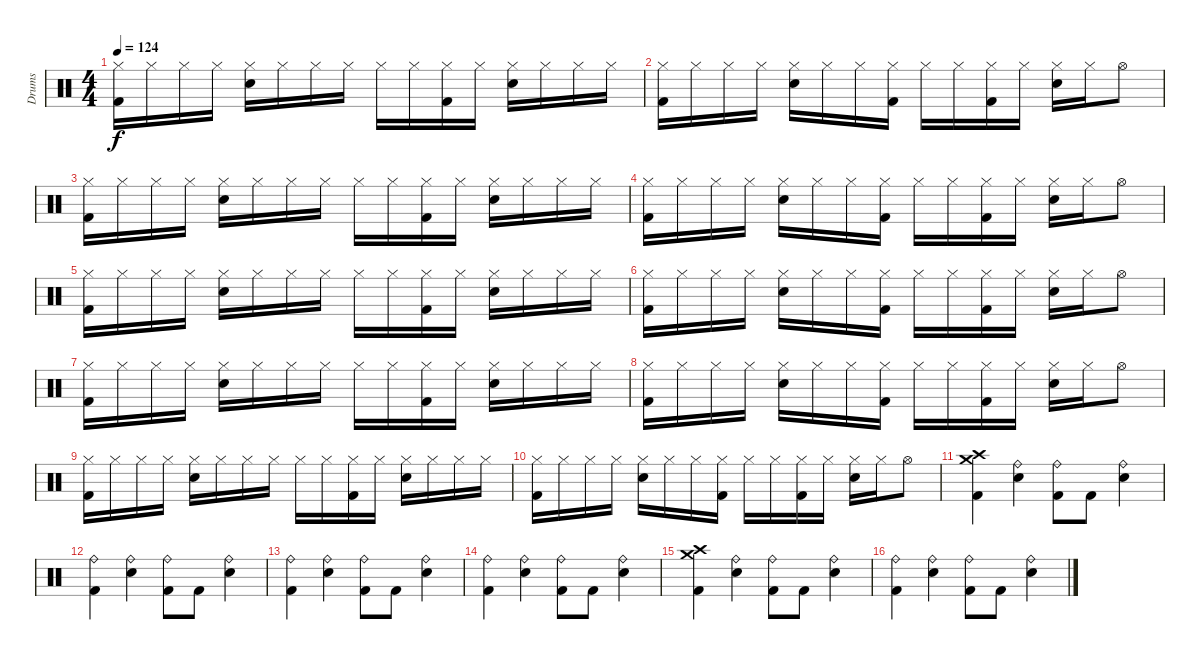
\track ("Drums" "Drums") {instrument percussion}
\staff {score}
\articulation defaults
\ts (4 4)
\tempo 124
\clef neutral
\ks c
("Hi-Hat (closed)" "Kick (hit) 2").16{dy f} "Hi-Hat (closed)".16 "Hi-Hat (closed)".16 "Hi-Hat (closed)".16 ("Hi-Hat (closed)" "Electric Snare (hit)").16 "Hi-Hat (closed)".16 "Hi-Hat (closed)".16 "Hi-Hat (closed)".16 "Hi-Hat (closed)".16 "Hi-Hat (closed)".16 ("Hi-Hat (closed)" "Kick (hit) 2").16 "Hi-Hat (closed)".16 ("Hi-Hat (closed)" "Electric Snare (hit)").16 "Hi-Hat (closed)".16 "Hi-Hat (closed)".16 "Hi-Hat (closed)".16 |
("Hi-Hat (closed)" "Kick (hit) 2").16 "Hi-Hat (closed)".16 "Hi-Hat (closed)".16 "Hi-Hat (closed)".16 ("Hi-Hat (closed)" "Electric Snare (hit)").16 "Hi-Hat (closed)".16 "Hi-Hat (closed)".16 ("Hi-Hat (closed)" "Kick (hit) 2").16 "Hi-Hat (closed)".16 "Hi-Hat (closed)".16 ("Hi-Hat (closed)" "Kick (hit) 2").16 "Hi-Hat (closed)".16 ("Hi-Hat (closed)" "Electric Snare (hit)").16 "Hi-Hat (closed)".16 "Hi-Hat (open)".8 |
("Hi-Hat (closed)" "Kick (hit) 2").16 "Hi-Hat (closed)".16 "Hi-Hat (closed)".16 "Hi-Hat (closed)".16 ("Hi-Hat (closed)" "Electric Snare (hit)").16 "Hi-Hat (closed)".16 "Hi-Hat (closed)".16 "Hi-Hat (closed)".16 "Hi-Hat (closed)".16 "Hi-Hat (closed)".16 ("Hi-Hat (closed)" "Kick (hit) 2").16 "Hi-Hat (closed)".16 ("Hi-Hat (closed)" "Electric Snare (hit)").16 "Hi-Hat (closed)".16 "Hi-Hat (closed)".16 "Hi-Hat (closed)".16 |
("Hi-Hat (closed)" "Kick (hit) 2").16 "Hi-Hat (closed)".16 "Hi-Hat (closed)".16 "Hi-Hat (closed)".16 ("Hi-Hat (closed)" "Electric Snare (hit)").16 "Hi-Hat (closed)".16 "Hi-Hat (closed)".16 ("Hi-Hat (closed)" "Kick (hit) 2").16 "Hi-Hat (closed)".16 "Hi-Hat (closed)".16 ("Hi-Hat (closed)" "Kick (hit) 2").16 "Hi-Hat (closed)".16 ("Hi-Hat (closed)" "Electric Snare (hit)").16 "Hi-Hat (closed)".16 "Hi-Hat (open)".8 |
("Hi-Hat (closed)" "Kick (hit) 2").16 "Hi-Hat (closed)".16 "Hi-Hat (closed)".16 "Hi-Hat (closed)".16 ("Hi-Hat (closed)" "Electric Snare (hit)").16 "Hi-Hat (closed)".16 "Hi-Hat (closed)".16 "Hi-Hat (closed)".16 "Hi-Hat (closed)".16 "Hi-Hat (closed)".16 ("Hi-Hat (closed)" "Kick (hit) 2").16 "Hi-Hat (closed)".16 ("Hi-Hat (closed)" "Electric Snare (hit)").16 "Hi-Hat (closed)".16 "Hi-Hat (closed)".16 "Hi-Hat (closed)".16 |
("Hi-Hat (closed)" "Kick (hit) 2").16 "Hi-Hat (closed)".16 "Hi-Hat (closed)".16 "Hi-Hat (closed)".16 ("Hi-Hat (closed)" "Electric Snare (hit)").16 "Hi-Hat (closed)".16 "Hi-Hat (closed)".16 ("Hi-Hat (closed)" "Kick (hit) 2").16 "Hi-Hat (closed)".16 "Hi-Hat (closed)".16 ("Hi-Hat (closed)" "Kick (hit) 2").16 "Hi-Hat (closed)".16 ("Hi-Hat (closed)" "Electric Snare (hit)").16 "Hi-Hat (closed)".16 "Hi-Hat (open)".8 |
("Hi-Hat (closed)" "Kick (hit) 2").16 "Hi-Hat (closed)".16 "Hi-Hat (closed)".16 "Hi-Hat (closed)".16 ("Hi-Hat (closed)" "Electric Snare (hit)").16 "Hi-Hat (closed)".16 "Hi-Hat (closed)".16 "Hi-Hat (closed)".16 "Hi-Hat (closed)".16 "Hi-Hat (closed)".16 ("Hi-Hat (closed)" "Kick (hit) 2").16 "Hi-Hat (closed)".16 ("Hi-Hat (closed)" "Electric Snare (hit)").16 "Hi-Hat (closed)".16 "Hi-Hat (closed)".16 "Hi-Hat (closed)".16 |
("Hi-Hat (closed)" "Kick (hit) 2").16 "Hi-Hat (closed)".16 "Hi-Hat (closed)".16 "Hi-Hat (closed)".16 ("Hi-Hat (closed)" "Electric Snare (hit)").16 "Hi-Hat (closed)".16 "Hi-Hat (closed)".16 ("Hi-Hat (closed)" "Kick (hit) 2").16 "Hi-Hat (closed)".16 "Hi-Hat (closed)".16 ("Hi-Hat (closed)" "Kick (hit) 2").16 "Hi-Hat (closed)".16 ("Hi-Hat (closed)" "Electric Snare (hit)").16 "Hi-Hat (closed)".16 "Hi-Hat (open)".8 |
("Hi-Hat (closed)" "Kick (hit) 2").16 "Hi-Hat (closed)".16 "Hi-Hat (closed)".16 "Hi-Hat (closed)".16 ("Hi-Hat (closed)" "Electric Snare (hit)").16 "Hi-Hat (closed)".16 "Hi-Hat (closed)".16 "Hi-Hat (closed)".16 "Hi-Hat (closed)".16 "Hi-Hat (closed)".16 ("Hi-Hat (closed)" "Kick (hit) 2").16 "Hi-Hat (closed)".16 ("Hi-Hat (closed)" "Electric Snare (hit)").16 "Hi-Hat (closed)".16 "Hi-Hat (closed)".16 "Hi-Hat (closed)".16 |
("Hi-Hat (closed)" "Kick (hit) 2").16 "Hi-Hat (closed)".16 "Hi-Hat (closed)".16 "Hi-Hat (closed)".16 ("Hi-Hat (closed)" "Electric Snare (hit)").16 "Hi-Hat (closed)".16 "Hi-Hat (closed)".16 ("Hi-Hat (closed)" "Kick (hit) 2").16 "Hi-Hat (closed)".16 "Hi-Hat (closed)".16 ("Hi-Hat (closed)" "Kick (hit) 2").16 "Hi-Hat (closed)".16 ("Hi-Hat (closed)" "Electric Snare (hit)").16 "Hi-Hat (closed)".16 "Hi-Hat (open)".8 |
("Crash high (hit)" "Crash medium (hit)" "Kick (hit) 2").4 ("Ride (bell)" "Electric Snare (hit)").4 ("Ride (bell)" "Kick (hit) 2").8 "Kick (hit) 2".8 ("Ride (bell)" "Electric Snare (hit)").4 |
("Ride (bell)" "Kick (hit) 2").4 ("Ride (bell)" "Electric Snare (hit)").4 ("Ride (bell)" "Kick (hit) 2").8 "Kick (hit) 2".8 ("Ride (bell)" "Electric Snare (hit)").4 |
("Ride (bell)" "Kick (hit) 2").4 ("Ride (bell)" "Electric Snare (hit)").4 ("Ride (bell)" "Kick (hit) 2").8 "Kick (hit) 2".8 ("Ride (bell)" "Electric Snare (hit)").4 |
("Ride (bell)" "Kick (hit) 2").4 ("Ride (bell)" "Electric Snare (hit)").4 ("Ride (bell)" "Kick (hit) 2").8 "Kick (hit) 2".8 ("Ride (bell)" "Electric Snare (hit)").4 |
("Crash high (hit)" "Crash medium (hit)" "Kick (hit) 2").4 ("Ride (bell)" "Electric Snare (hit)").4 ("Ride (bell)" "Kick (hit) 2").8 "Kick (hit) 2".8 ("Ride (bell)" "Electric Snare (hit)").4 |
("Ride (bell)" "Kick (hit) 2").4 ("Ride (bell)" "Electric Snare (hit)").4 ("Ride (bell)" "Kick (hit) 2").8 "Kick (hit) 2".8 ("Ride (bell)" "Electric Snare (hit)").4
